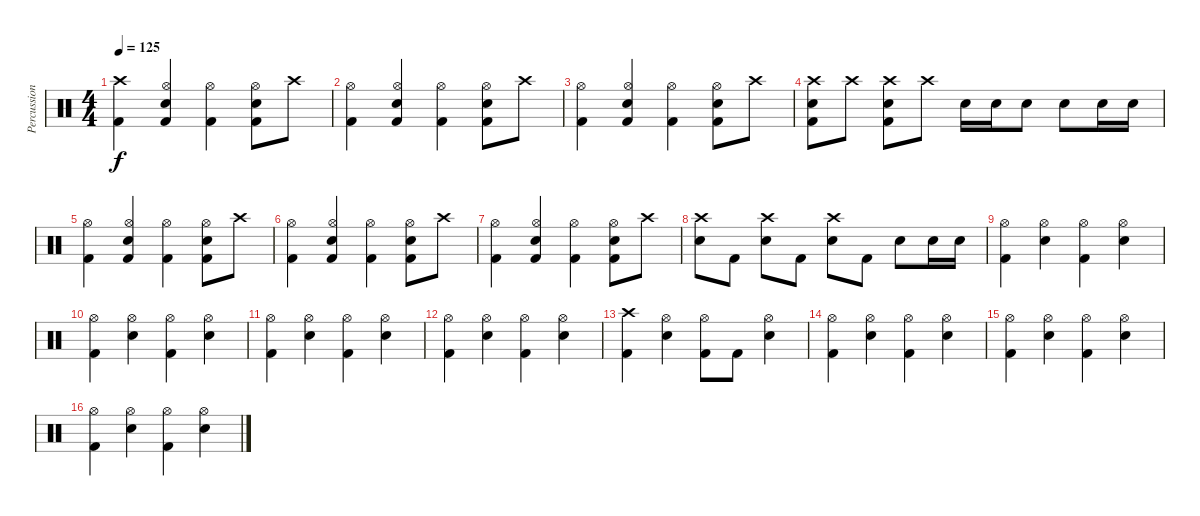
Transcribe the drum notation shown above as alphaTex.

\track ("Percussion" "Percussion") {instrument percussion}
\staff {score}
\articulation defaults
\ts (4 4)
\tempo 125
\clef neutral
\ks c
("Crash high (hit)" "Kick (hit) 2").4{dy f} ("Hi-Hat (open)" "Snare (hit) 2" "Kick (hit) 2").4 ("Hi-Hat (open)" "Kick (hit) 2").4 ("Hi-Hat (open)" "Snare (hit) 2" "Kick (hit) 2").8 "Crash high (hit)".8 |
("Hi-Hat (open)" "Kick (hit) 2").4 ("Hi-Hat (open)" "Snare (hit) 2" "Kick (hit) 2").4 ("Hi-Hat (open)" "Kick (hit) 2").4 ("Hi-Hat (open)" "Snare (hit) 2" "Kick (hit) 2").8 "Crash high (hit)".8 |
("Hi-Hat (open)" "Kick (hit) 2").4 ("Hi-Hat (open)" "Snare (hit) 2" "Kick (hit) 2").4 ("Hi-Hat (open)" "Kick (hit) 2").4 ("Hi-Hat (open)" "Snare (hit) 2" "Kick (hit) 2").8 "Crash high (hit)".8 |
("Crash high (hit)" "Snare (hit) 2" "Kick (hit) 2").8 "Crash high (hit)".8 ("Crash high (hit)" "Snare (hit) 2" "Kick (hit) 2").8 "Crash high (hit)".8 "Snare (hit) 2".16 "Snare (hit) 2".16 "Snare (hit) 2".8 "Snare (hit) 2".8 "Snare (hit) 2".16 "Snare (hit) 2".16 |
("Hi-Hat (open)" "Kick (hit) 2").4 ("Hi-Hat (open)" "Snare (hit) 2" "Kick (hit) 2").4 ("Hi-Hat (open)" "Kick (hit) 2").4 ("Hi-Hat (open)" "Snare (hit) 2" "Kick (hit) 2").8 "Crash high (hit)".8 |
("Hi-Hat (open)" "Kick (hit) 2").4 ("Hi-Hat (open)" "Snare (hit) 2" "Kick (hit) 2").4 ("Hi-Hat (open)" "Kick (hit) 2").4 ("Hi-Hat (open)" "Snare (hit) 2" "Kick (hit) 2").8 "Crash high (hit)".8 |
("Hi-Hat (open)" "Kick (hit) 2").4 ("Hi-Hat (open)" "Snare (hit) 2" "Kick (hit) 2").4 ("Hi-Hat (open)" "Kick (hit) 2").4 ("Hi-Hat (open)" "Snare (hit) 2" "Kick (hit) 2").8 "Crash high (hit)".8 |
("Crash high (hit)" "Snare (hit) 2").8 "Kick (hit) 2".8 ("Crash high (hit)" "Snare (hit) 2").8 "Kick (hit) 2".8 ("Crash high (hit)" "Snare (hit) 2").8 "Kick (hit) 2".8 "Snare (hit) 2".8 "Snare (hit) 2".16 "Snare (hit) 2".16 |
("Hi-Hat (open)" "Kick (hit) 2").4 ("Hi-Hat (open)" "Snare (hit) 2").4 ("Hi-Hat (open)" "Kick (hit) 2").4 ("Hi-Hat (open)" "Snare (hit) 2").4 |
("Hi-Hat (open)" "Kick (hit) 2").4 ("Hi-Hat (open)" "Snare (hit) 2").4 ("Hi-Hat (open)" "Kick (hit) 2").4 ("Hi-Hat (open)" "Snare (hit) 2").4 |
("Hi-Hat (open)" "Kick (hit) 2").4 ("Hi-Hat (open)" "Snare (hit) 2").4 ("Hi-Hat (open)" "Kick (hit) 2").4 ("Hi-Hat (open)" "Snare (hit) 2").4 |
("Hi-Hat (open)" "Kick (hit) 2").4 ("Hi-Hat (open)" "Snare (hit) 2").4 ("Hi-Hat (open)" "Kick (hit) 2").4 ("Hi-Hat (open)" "Snare (hit) 2").4 |
("Crash high (hit)" "Kick (hit) 2").4 ("Hi-Hat (open)" "Snare (hit) 2").4 ("Hi-Hat (open)" "Kick (hit) 2").8 "Kick (hit) 2".8 ("Hi-Hat (open)" "Snare (hit) 2").4 |
("Hi-Hat (open)" "Kick (hit) 2").4 ("Hi-Hat (open)" "Snare (hit) 2").4 ("Hi-Hat (open)" "Kick (hit) 2").4 ("Hi-Hat (open)" "Snare (hit) 2").4 |
("Hi-Hat (open)" "Kick (hit) 2").4 ("Hi-Hat (open)" "Snare (hit) 2").4 ("Hi-Hat (open)" "Kick (hit) 2").4 ("Hi-Hat (open)" "Snare (hit) 2").4 |
("Hi-Hat (open)" "Kick (hit) 2").4 ("Hi-Hat (open)" "Snare (hit) 2").4 ("Hi-Hat (open)" "Kick (hit) 2").4 ("Hi-Hat (open)" "Snare (hit) 2").4
